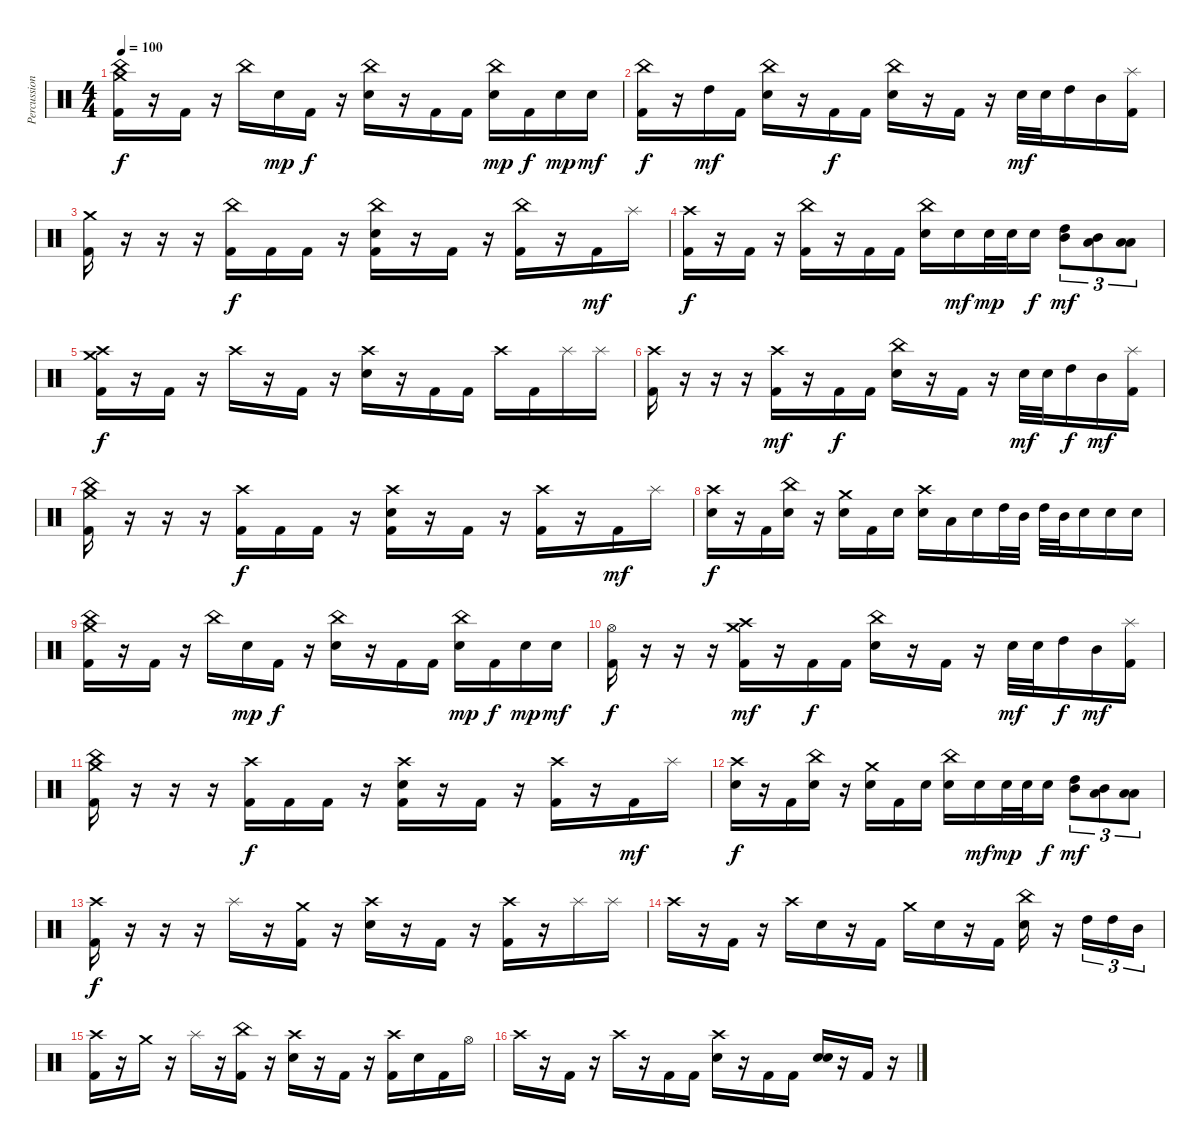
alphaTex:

\track ("Percussion" "Percussion") {instrument percussion}
\staff {score}
\articulation defaults
\ts (4 4)
\tempo 100
\clef neutral
\ks c
("China (hit)" "Crash medium (hit)" "Kick (hit) 2").16{dy f} r.16 "Kick (hit) 2".16 r.16 "China (hit)".16 "Electric Snare (hit)".16{dy mp} "Kick (hit) 2".16{dy f} r.16 ("China (hit)" "Electric Snare (hit)").16 r.16 "Kick (hit) 2".16 "Kick (hit) 2".16 ("China (hit)" "Electric Snare (hit)").16{dy mp} "Kick (hit) 2".16{dy f} "Electric Snare (hit)".16{dy mp} "Electric Snare (hit)".16{dy mf} |
("China (hit)" "Kick (hit) 2").16{dy f} r.16 "High Tom (hit)".16{dy mf} "Kick (hit) 2".16 ("China (hit)" "Electric Snare (hit)").16 r.16 "Kick (hit) 2".16{dy f} "Kick (hit) 2".16 ("China (hit)" "Electric Snare (hit)").16 r.16 "Kick (hit) 2".16 r.16 "Electric Snare (hit)".32{dy mf} "Electric Snare (hit)".32 "High Tom (hit)".16 "Mid Tom (hit)".16 ("Splash (hit)" "Kick (hit) 2").16 |
("Crash medium (hit)" "Kick (hit) 2").16 r.16 r.16 r.16 ("China (hit)" "Kick (hit) 2").16{dy f} "Kick (hit) 2".16 "Kick (hit) 2".16 r.16 ("China (hit)" "Electric Snare (hit)" "Kick (hit) 2").16 r.16 "Kick (hit) 2".16 r.16 ("China (hit)" "Kick (hit) 2").16 r.16 "Kick (hit) 2".16{dy mf} "Splash (hit)".16 |
("Crash high (hit)" "Kick (hit) 2").16{dy f} r.16 "Kick (hit) 2".16 r.16 ("China (hit)" "Kick (hit) 2").16 r.16 "Kick (hit) 2".16 "Kick (hit) 2".16 ("China (hit)" "Electric Snare (hit)").16 "Electric Snare (hit)".16{dy mf} "Electric Snare (hit)".32{dy mp} "Electric Snare (hit)".32 "Electric Snare (hit)".16{dy f} ("High Tom (hit)" "Mid Tom (hit)").8{tu (3 2) dy mf} ("Mid Tom (hit)" "Low Tom (hit)").8{tu (3 2)} ("Low Floor Tom (hit)" "Low Tom (hit)").8{tu (3 2)} |
("Crash medium (hit)" "Crash high (hit)" "Kick (hit) 2").16{dy f} r.16 "Kick (hit) 2".16 r.16 "Crash high (hit)".16 r.16 "Kick (hit) 2".16 r.16 ("Crash high (hit)" "Electric Snare (hit)").16 r.16 "Kick (hit) 2".16 "Kick (hit) 2".16 "Crash high (hit)".16 "Kick (hit) 2".16 "Splash (hit)".16 "Splash (hit)".16 |
("Crash high (hit)" "Kick (hit) 2").16 r.16 r.16 r.16 ("Crash high (hit)" "Kick (hit) 2").16{dy mf} r.16 "Kick (hit) 2".16{dy f} "Kick (hit) 2".16 ("China (hit)" "Electric Snare (hit)").16 r.16 "Kick (hit) 2".16 r.16 "Electric Snare (hit)".32{dy mf} "Electric Snare (hit)".32 "High Tom (hit)".16{dy f} "Mid Tom (hit)".16{dy mf} ("Splash (hit)" "Kick (hit) 2").16 |
("China (hit)" "Crash medium (hit)" "Kick (hit) 2").16 r.16 r.16 r.16 ("Crash high (hit)" "Kick (hit) 2").16{dy f} "Kick (hit) 2".16 "Kick (hit) 2".16 r.16 ("Crash high (hit)" "Electric Snare (hit)" "Kick (hit) 2").16 r.16 "Kick (hit) 2".16 r.16 ("Crash high (hit)" "Kick (hit) 2").16 r.16 "Kick (hit) 2".16{dy mf} "Splash (hit)".16 |
("Crash high (hit)" "Electric Snare (hit)").16{dy f} r.16 "Kick (hit) 2".16 ("China (hit)" "Electric Snare (hit)").16 r.16 ("Crash medium (hit)" "Electric Snare (hit)").16 "Kick (hit) 2".16 "Electric Snare (hit)".16 ("Crash high (hit)" "Electric Snare (hit)").16 "Low Tom (hit)".16 "Electric Snare (hit)".16 "High Tom (hit)".32 "Mid Tom (hit)".32 "High Tom (hit)".32 "Mid Tom (hit)".32 "Electric Snare (hit)".16 "Electric Snare (hit)".16 "Electric Snare (hit)".16 |
("China (hit)" "Crash medium (hit)" "Kick (hit) 2").16 r.16 "Kick (hit) 2".16 r.16 "China (hit)".16 "Electric Snare (hit)".16{dy mp} "Kick (hit) 2".16{dy f} r.16 ("China (hit)" "Electric Snare (hit)").16 r.16 "Kick (hit) 2".16 "Kick (hit) 2".16 ("China (hit)" "Electric Snare (hit)").16{dy mp} "Kick (hit) 2".16{dy f} "Electric Snare (hit)".16{dy mp} "Electric Snare (hit)".16{dy mf} |
("Hi-Hat (open)" "Kick (hit) 2").16{dy f} r.16{volume 0} r.16 r.16 ("Crash medium (hit)" "Crash high (hit)" "Kick (hit) 2").16{dy mf volume 13} r.16 "Kick (hit) 2".16{dy f} "Kick (hit) 2".16 ("China (hit)" "Electric Snare (hit)").16 r.16 "Kick (hit) 2".16 r.16 "Electric Snare (hit)".32{dy mf} "Electric Snare (hit)".32 "High Tom (hit)".16{dy f} "Mid Tom (hit)".16{dy mf} ("Splash (hit)" "Kick (hit) 2").16 |
("China (hit)" "Crash medium (hit)" "Kick (hit) 2").16 r.16 r.16 r.16 ("Crash high (hit)" "Kick (hit) 2").16{dy f} "Kick (hit) 2".16 "Kick (hit) 2".16 r.16 ("Crash high (hit)" "Electric Snare (hit)" "Kick (hit) 2").16 r.16 "Kick (hit) 2".16 r.16 ("Crash high (hit)" "Kick (hit) 2").16 r.16 "Kick (hit) 2".16{dy mf} "Splash (hit)".16 |
("Crash high (hit)" "Electric Snare (hit)").16{dy f} r.16 "Kick (hit) 2".16 ("China (hit)" "Electric Snare (hit)").16 r.16 ("Crash medium (hit)" "Electric Snare (hit)").16 "Kick (hit) 2".16 "Electric Snare (hit)".16 ("China (hit)" "Electric Snare (hit)").16 "Electric Snare (hit)".16{dy mf} "Electric Snare (hit)".32{dy mp} "Electric Snare (hit)".32 "Electric Snare (hit)".16{dy f} ("High Tom (hit)" "Mid Tom (hit)").8{tu (3 2) dy mf} ("Mid Tom (hit)" "Low Tom (hit)").8{tu (3 2)} ("Low Floor Tom (hit)" "Low Tom (hit)").8{tu (3 2)} |
("Crash high (hit)" "Kick (hit) 2").16{dy f} r.16 r.16 r.16 "Splash (hit)".16 r.16 ("Crash medium (hit)" "Kick (hit) 2").16 r.16 ("Crash high (hit)" "Electric Snare (hit)").16 r.16 "Kick (hit) 2".16 r.16 ("Crash high (hit)" "Kick (hit) 2").16 r.16 "Splash (hit)".16 "Splash (hit)".16 |
"Crash high (hit)".16 r.16 "Kick (hit) 2".16 r.16 "Crash high (hit)".16 "Electric Snare (hit)".16 r.16 "Kick (hit) 2".16 "Crash medium (hit)".16 "Electric Snare (hit)".16 r.16 "Kick (hit) 2".16 ("China (hit)" "Electric Snare (hit)").16 r.16 "High Tom (hit)".16{tu (3 2)} "High Tom (hit)".16{tu (3 2)} "Mid Tom (hit)".16{tu (3 2)} |
("Crash high (hit)" "Kick (hit) 2").16 r.16 "Crash medium (hit)".16 r.16 "Splash (hit)".16 r.16 ("China (hit)" "Kick (hit) 2").16 r.16 ("Crash high (hit)" "Electric Snare (hit)").16 r.16 "Kick (hit) 2".16 r.16 ("Crash high (hit)" "Kick (hit) 2").16 "Electric Snare (hit)".16 "Kick (hit) 2".16 "Hi-Hat (open)".16 |
"Crash high (hit)".16 r.16 "Kick (hit) 2".16 r.16 "Crash high (hit)".16 r.16 "Kick (hit) 2".16 "Kick (hit) 2".16 ("Crash high (hit)" "Electric Snare (hit)").16 r.16 "Kick (hit) 2".16 "Kick (hit) 2".16 ("Electric Snare (hit)" "Electric Snare (hit)").16 r.16 "Kick (hit) 2".16 r.16
